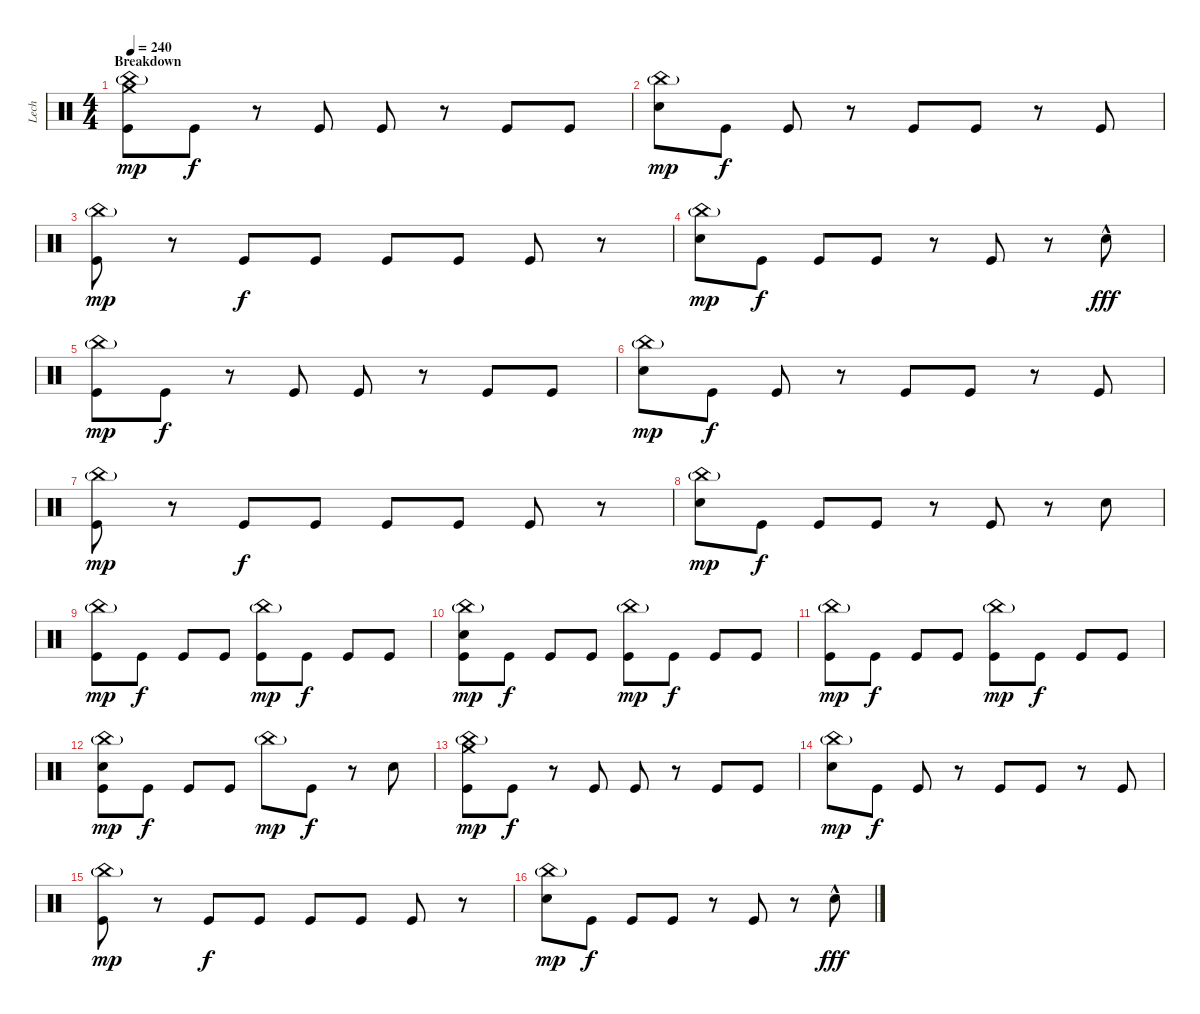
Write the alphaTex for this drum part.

\track ("Lech" "Lech") {instrument percussion}
\staff {score}
\articulation defaults
\ts (4 4)
\section ("" "Breakdown")
\tempo 240
\clef neutral
\ks c
("Crash medium (hit)" "China (hit)"{g} "Kick (hit)").8{dy mp} "Kick (hit)".8{dy f} r.8 "Kick (hit)".8 "Kick (hit)".8 r.8 "Kick (hit)".8 "Kick (hit)".8 |
("China (hit)"{g} "Snare (hit) 2").8{dy mp} "Kick (hit)".8{dy f} "Kick (hit)".8 r.8 "Kick (hit)".8 "Kick (hit)".8 r.8 "Kick (hit)".8 |
("China (hit)"{g} "Kick (hit)").8{dy mp} r.8 "Kick (hit)".8{dy f} "Kick (hit)".8 "Kick (hit)".8 "Kick (hit)".8 "Kick (hit)".8 r.8 |
("China (hit)"{g} "Snare (hit) 2").8{dy mp} "Kick (hit)".8{dy f} "Kick (hit)".8 "Kick (hit)".8 r.8 "Kick (hit)".8 r.8 "Snare (hit) 2"{hac}.8{dy fff} |
("China (hit)"{g} "Kick (hit)").8{dy mp} "Kick (hit)".8{dy f} r.8 "Kick (hit)".8 "Kick (hit)".8 r.8 "Kick (hit)".8 "Kick (hit)".8 |
("China (hit)"{g} "Snare (hit) 2").8{dy mp} "Kick (hit)".8{dy f} "Kick (hit)".8 r.8 "Kick (hit)".8 "Kick (hit)".8 r.8 "Kick (hit)".8 |
("China (hit)"{g} "Kick (hit)").8{dy mp} r.8 "Kick (hit)".8{dy f} "Kick (hit)".8 "Kick (hit)".8 "Kick (hit)".8 "Kick (hit)".8 r.8 |
("China (hit)"{g} "Snare (hit) 2").8{dy mp} "Kick (hit)".8{dy f} "Kick (hit)".8 "Kick (hit)".8 r.8 "Kick (hit)".8 r.8 "Snare (hit) 2".8 |
("China (hit)"{g} "Kick (hit)").8{dy mp} "Kick (hit)".8{dy f} "Kick (hit)".8 "Kick (hit)".8 ("China (hit)"{g} "Kick (hit)").8{dy mp} "Kick (hit)".8{dy f} "Kick (hit)".8 "Kick (hit)".8 |
("China (hit)"{g} "Snare (hit) 2" "Kick (hit)").8{dy mp} "Kick (hit)".8{dy f} "Kick (hit)".8 "Kick (hit)".8 ("China (hit)"{g} "Kick (hit)").8{dy mp} "Kick (hit)".8{dy f} "Kick (hit)".8 "Kick (hit)".8 |
("China (hit)"{g} "Kick (hit)").8{dy mp} "Kick (hit)".8{dy f} "Kick (hit)".8 "Kick (hit)".8 ("China (hit)"{g} "Kick (hit)").8{dy mp} "Kick (hit)".8{dy f} "Kick (hit)".8 "Kick (hit)".8 |
("China (hit)"{g} "Snare (hit) 2" "Kick (hit)").8{dy mp} "Kick (hit)".8{dy f} "Kick (hit)".8 "Kick (hit)".8 "China (hit)"{g}.8{dy mp} "Kick (hit)".8{dy f} r.8 "Snare (hit) 2".8 |
("Crash medium (hit)" "China (hit)"{g} "Kick (hit)").8{dy mp} "Kick (hit)".8{dy f} r.8 "Kick (hit)".8 "Kick (hit)".8 r.8 "Kick (hit)".8 "Kick (hit)".8 |
("China (hit)"{g} "Snare (hit) 2").8{dy mp} "Kick (hit)".8{dy f} "Kick (hit)".8 r.8 "Kick (hit)".8 "Kick (hit)".8 r.8 "Kick (hit)".8 |
("China (hit)"{g} "Kick (hit)").8{dy mp} r.8 "Kick (hit)".8{dy f} "Kick (hit)".8 "Kick (hit)".8 "Kick (hit)".8 "Kick (hit)".8 r.8 |
("China (hit)"{g} "Snare (hit) 2").8{dy mp} "Kick (hit)".8{dy f} "Kick (hit)".8 "Kick (hit)".8 r.8 "Kick (hit)".8 r.8 "Snare (hit) 2"{hac}.8{dy fff}
